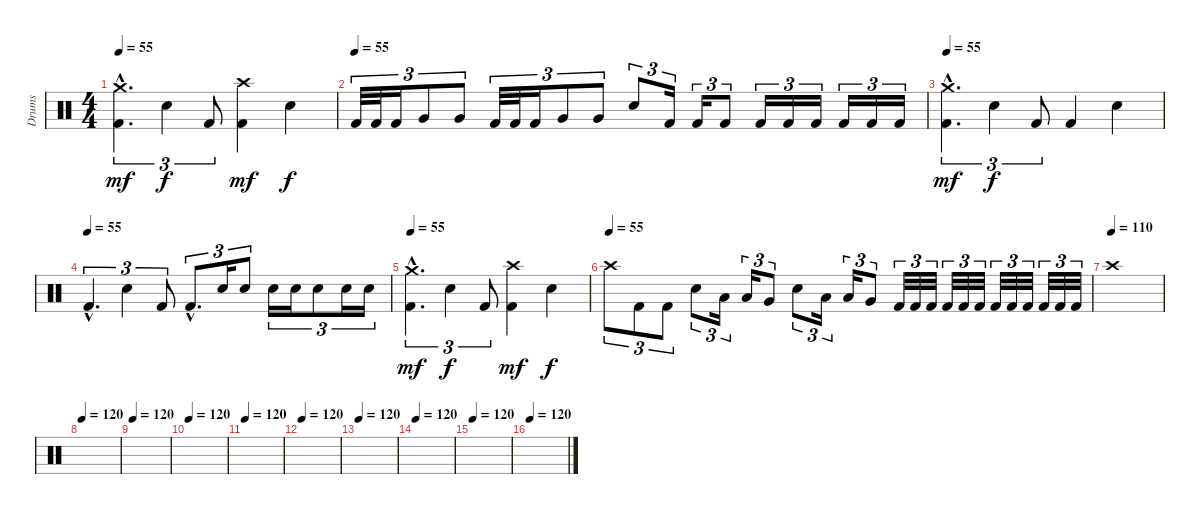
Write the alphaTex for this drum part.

\track ("Drums" "Drums") {instrument percussion}
\staff {score}
\articulation defaults
\ts (4 4)
\tempo 55
\clef neutral
\ks c
("Crash medium (hit)"{hac} "Kick (hit) 2"{hac}).4{d tu (3 2) dy mf} "Electric Snare (hit)".4{tu (3 2) dy f} "Kick (hit) 2".8{tu (3 2)} ("Crash high (hit)" "Kick (hit) 2").4{dy mf} "Electric Snare (hit)".4{dy f} |
\tempo (55)
"Kick (hit) 2".32{tu (3 2)} "Kick (hit) 2".32{tu (3 2)} "Kick (hit) 2".16{tu (3 2)} "Very Low Tom (hit)".8{tu (3 2)} "Very Low Tom (hit)".8{tu (3 2)} "Kick (hit) 2".32{tu (3 2)} "Kick (hit) 2".32{tu (3 2)} "Kick (hit) 2".16{tu (3 2)} "Very Low Tom (hit)".8{tu (3 2)} "Very Low Tom (hit)".8{tu (3 2)} "Electric Snare (hit)".8{tu (3 2)} "Kick (hit) 2".16{tu (3 2)} "Kick (hit) 2".16{tu (3 2)} "Kick (hit) 2".8{tu (3 2)} "Kick (hit) 2".16{tu (3 2)} "Kick (hit) 2".16{tu (3 2)} "Kick (hit) 2".16{tu (3 2)} "Kick (hit) 2".16{tu (3 2)} "Kick (hit) 2".16{tu (3 2)} "Kick (hit) 2".16{tu (3 2)} |
\tempo 55
("Crash medium (hit)"{hac} "Kick (hit) 2"{hac}).4{d tu (3 2) dy mf} "Electric Snare (hit)".4{tu (3 2) dy f} "Kick (hit) 2".8{tu (3 2)} "Kick (hit) 2".4 "Electric Snare (hit)".4 |
\tempo (55)
"Kick (hit) 2"{hac}.4{d tu (3 2)} "Electric Snare (hit)".4{tu (3 2)} "Kick (hit) 2".8{tu (3 2)} "Kick (hit) 2"{hac}.8{d tu (3 2)} "Electric Snare (hit)".16{tu (3 2)} "Electric Snare (hit)".8{tu (3 2)} "Electric Snare (hit)".16{tu (3 2)} "Electric Snare (hit)".16{tu (3 2)} "Electric Snare (hit)".8{tu (3 2)} "Electric Snare (hit)".16{tu (3 2)} "Electric Snare (hit)".16{tu (3 2)} |
\tempo 55
("Crash medium (hit)"{hac} "Kick (hit) 2"{hac}).4{d tu (3 2) dy mf} "Electric Snare (hit)".4{tu (3 2) dy f} "Kick (hit) 2".8{tu (3 2)} ("Crash high (hit)" "Kick (hit) 2").4{dy mf} "Electric Snare (hit)".4{dy f} |
\tempo (55)
"Crash high (hit)".8{tu (3 2)} "Kick (hit) 2".8{tu (3 2)} "Kick (hit) 2".8{tu (3 2)} "Electric Snare (hit)".8{tu (3 2)} "Low Tom (hit)".16{tu (3 2)} "Low Tom (hit)".16{tu (3 2)} "Very Low Tom (hit)".8{tu (3 2)} "Electric Snare (hit)".8{tu (3 2)} "Low Tom (hit)".16{tu (3 2)} "Low Tom (hit)".16{tu (3 2)} "Very Low Tom (hit)".8{tu (3 2)} "Kick (hit) 2".32{tu (3 2)} "Kick (hit) 2".32{tu (3 2)} "Kick (hit) 2".32{tu (3 2)} "Kick (hit) 2".32{tu (3 2)} "Kick (hit) 2".32{tu (3 2)} "Kick (hit) 2".32{tu (3 2)} "Kick (hit) 2".32{tu (3 2)} "Kick (hit) 2".32{tu (3 2)} "Kick (hit) 2".32{tu (3 2)} "Kick (hit) 2".32{tu (3 2)} "Kick (hit) 2".32{tu (3 2)} "Kick (hit) 2".32{tu (3 2)} |
\tempo (110)
"Crash high (hit)".1 |
\tempo 120
|
\tempo 120
|
\tempo 120
|
\tempo 120
|
\tempo 120
|
\tempo 120
|
\tempo 120
|
\tempo 120
|
\tempo 120
